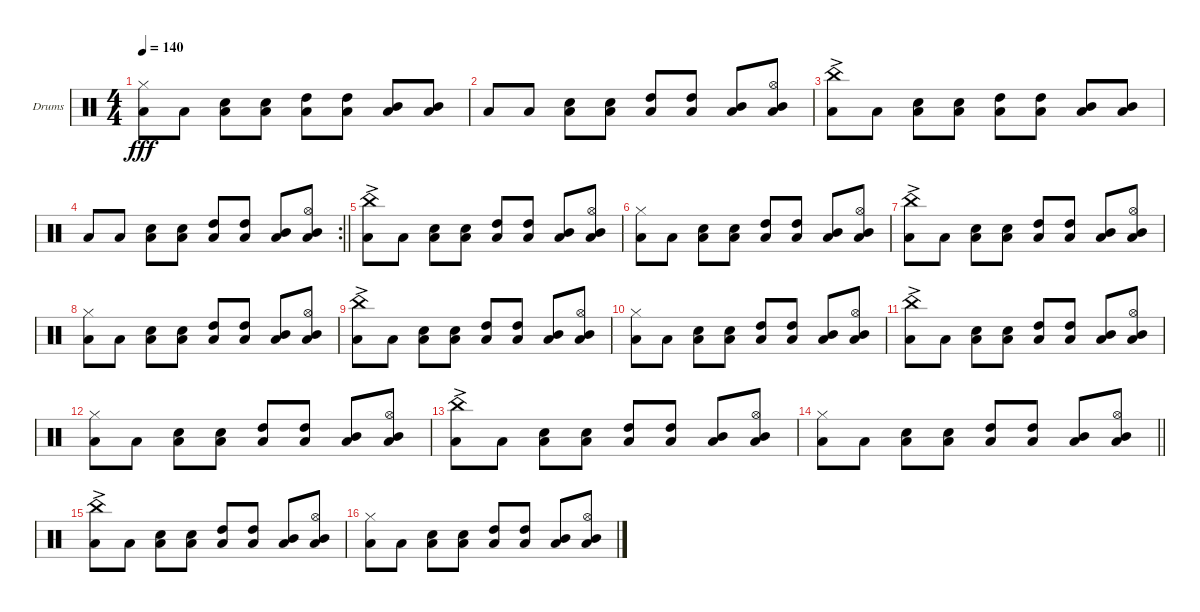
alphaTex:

\defaultSystemsLayout 4
\bracketExtendMode groupsimilarinstruments
\firstSystemTrackNameOrientation horizontal
\otherSystemsTrackNameOrientation horizontal
\track ("Drumkit" "Drums") {instrument percussion}
\staff {score}
\articulation defaults
\ts (4 4)
\tempo 140
\clef neutral
\scale
0.333333
\ks c
("Low Tom (hit)" "Hi-Hat (closed)").8{dy fff} "Low Tom (hit)".8 ("Low Tom (hit)" "Snare (hit) 2").8 ("Low Tom (hit)" "Snare (hit) 2").8 ("Low Tom (hit)" "High Tom (hit)").8 ("Low Tom (hit)" "High Tom (hit)").8 ("Low Tom (hit)" "Mid Tom (hit)").8 ("Low Tom (hit)" "Mid Tom (hit)").8 |
\scale
0.333333 "Low Tom (hit)".8 "Low Tom (hit)".8 ("Low Tom (hit)" "Snare (hit) 2").8 ("Low Tom (hit)" "Snare (hit) 2").8 ("Low Tom (hit)" "High Tom (hit)").8 ("Low Tom (hit)" "High Tom (hit)").8 ("Low Tom (hit)" "Mid Tom (hit)").8{beam invert} ("Low Tom (hit)" "Mid Tom (hit)" "Hi-Hat (open)").8 |
\scale
0.322034 ("Low Tom (hit)" "China (hit)"{ac}).8 "Low Tom (hit)".8 ("Low Tom (hit)" "Snare (hit) 2").8 ("Low Tom (hit)" "Snare (hit) 2").8 ("Low Tom (hit)" "High Tom (hit)").8 ("Low Tom (hit)" "High Tom (hit)").8 ("Low Tom (hit)" "Mid Tom (hit)").8 ("Low Tom (hit)" "Mid Tom (hit)").8 |
\rc 2
\scale
0.355932
\barLineRight lightlight "Low Tom (hit)".8 "Low Tom (hit)".8
("Low Tom (hit)" "Snare (hit) 2").8 ("Low Tom (hit)" "Snare (hit) 2").8 ("Low Tom (hit)" "High Tom (hit)").8 ("Low Tom (hit)" "High Tom (hit)").8 ("Low Tom (hit)" "Mid Tom (hit)").8{beam invert} ("Low Tom (hit)" "Mid Tom (hit)" "Hi-Hat (open)").8 |
\scale
0.322034 ("Low Tom (hit)" "China (hit)"{ac}).8 "Low Tom (hit)".8 ("Low Tom (hit)" "Snare (hit) 2").8 ("Low Tom (hit)" "Snare (hit) 2").8 ("Low Tom (hit)" "High Tom (hit)").8 ("Low Tom (hit)" "High Tom (hit)").8 ("Low Tom (hit)" "Mid Tom (hit)").8{beam invert} ("Low Tom (hit)" "Mid Tom (hit)" "Hi-Hat (open)").8 |
\scale
0.333333 ("Low Tom (hit)" "Hi-Hat (closed)").8 "Low Tom (hit)".8 ("Low Tom (hit)" "Snare (hit) 2").8 ("Low Tom (hit)" "Snare (hit) 2").8 ("Low Tom (hit)" "High Tom (hit)").8 ("Low Tom (hit)" "High Tom (hit)").8 ("Low Tom (hit)" "Mid Tom (hit)").8{beam invert} ("Low Tom (hit)" "Mid Tom (hit)" "Hi-Hat (open)").8 |
\scale
0.333333 ("Low Tom (hit)" "China (hit)"{ac}).8 "Low Tom (hit)".8 ("Low Tom (hit)" "Snare (hit) 2").8 ("Low Tom (hit)" "Snare (hit) 2").8 ("Low Tom (hit)" "High Tom (hit)").8 ("Low Tom (hit)" "High Tom (hit)").8 ("Low Tom (hit)" "Mid Tom (hit)").8{beam invert} ("Low Tom (hit)" "Mid Tom (hit)" "Hi-Hat (open)").8 |
\scale
0.333333 ("Low Tom (hit)" "Hi-Hat (closed)").8 "Low Tom (hit)".8 ("Low Tom (hit)" "Snare (hit) 2").8 ("Low Tom (hit)" "Snare (hit) 2").8 ("Low Tom (hit)" "High Tom (hit)").8 ("Low Tom (hit)" "High Tom (hit)").8 ("Low Tom (hit)" "Mid Tom (hit)").8{beam invert} ("Low Tom (hit)" "Mid Tom (hit)" "Hi-Hat (open)").8 |
\scale
0.333333 ("Low Tom (hit)" "China (hit)"{ac}).8 "Low Tom (hit)".8 ("Low Tom (hit)" "Snare (hit) 2").8 ("Low Tom (hit)" "Snare (hit) 2").8 ("Low Tom (hit)" "High Tom (hit)").8 ("Low Tom (hit)" "High Tom (hit)").8 ("Low Tom (hit)" "Mid Tom (hit)").8{beam invert} ("Low Tom (hit)" "Mid Tom (hit)" "Hi-Hat (open)").8 |
\scale
0.333333 ("Low Tom (hit)" "Hi-Hat (closed)").8 "Low Tom (hit)".8 ("Low Tom (hit)" "Snare (hit) 2").8 ("Low Tom (hit)" "Snare (hit) 2").8 ("Low Tom (hit)" "High Tom (hit)").8 ("Low Tom (hit)" "High Tom (hit)").8 ("Low Tom (hit)" "Mid Tom (hit)").8{beam invert} ("Low Tom (hit)" "Mid Tom (hit)" "Hi-Hat (open)").8 |
\scale
0.333333 ("Low Tom (hit)" "China (hit)"{ac}).8 "Low Tom (hit)".8 ("Low Tom (hit)" "Snare (hit) 2").8 ("Low Tom (hit)" "Snare (hit) 2").8 ("Low Tom (hit)" "High Tom (hit)").8 ("Low Tom (hit)" "High Tom (hit)").8 ("Low Tom (hit)" "Mid Tom (hit)").8{beam invert} ("Low Tom (hit)" "Mid Tom (hit)" "Hi-Hat (open)").8 |
\scale
0.333333 ("Low Tom (hit)" "Hi-Hat (closed)").8 "Low Tom (hit)".8 ("Low Tom (hit)" "Snare (hit) 2").8 ("Low Tom (hit)" "Snare (hit) 2").8 ("Low Tom (hit)" "High Tom (hit)").8 ("Low Tom (hit)" "High Tom (hit)").8 ("Low Tom (hit)" "Mid Tom (hit)").8{beam invert} ("Low Tom (hit)" "Mid Tom (hit)" "Hi-Hat (open)").8 |
\scale
0.333333 ("Low Tom (hit)" "China (hit)"{ac}).8 "Low Tom (hit)".8 ("Low Tom (hit)" "Snare (hit) 2").8 ("Low Tom (hit)" "Snare (hit) 2").8 ("Low Tom (hit)" "High Tom (hit)").8 ("Low Tom (hit)" "High Tom (hit)").8 ("Low Tom (hit)" "Mid Tom (hit)").8{beam invert} ("Low Tom (hit)" "Mid Tom (hit)" "Hi-Hat (open)").8 |
\scale
0.333333
\barLineRight lightlight
("Low Tom (hit)" "Hi-Hat (closed)").8 "Low Tom (hit)".8 ("Low Tom (hit)" "Snare (hit) 2").8 ("Low Tom (hit)" "Snare (hit) 2").8 ("Low Tom (hit)" "High Tom (hit)").8 ("Low Tom (hit)" "High Tom (hit)").8 ("Low Tom (hit)" "Mid Tom (hit)").8{beam invert} ("Low Tom (hit)" "Mid Tom (hit)" "Hi-Hat (open)").8 |
\scale
0.333333 ("Low Tom (hit)" "China (hit)"{ac}).8 "Low Tom (hit)".8 ("Low Tom (hit)" "Snare (hit) 2").8 ("Low Tom (hit)" "Snare (hit) 2").8 ("Low Tom (hit)" "High Tom (hit)").8 ("Low Tom (hit)" "High Tom (hit)").8 ("Low Tom (hit)" "Mid Tom (hit)").8{beam invert} ("Low Tom (hit)" "Mid Tom (hit)" "Hi-Hat (open)").8 |
\scale
0.333333 ("Low Tom (hit)" "Hi-Hat (closed)").8 "Low Tom (hit)".8 ("Low Tom (hit)" "Snare (hit) 2").8 ("Low Tom (hit)" "Snare (hit) 2").8 ("Low Tom (hit)" "High Tom (hit)").8 ("Low Tom (hit)" "High Tom (hit)").8 ("Low Tom (hit)" "Mid Tom (hit)").8{beam invert} ("Low Tom (hit)" "Mid Tom (hit)" "Hi-Hat (open)").8
